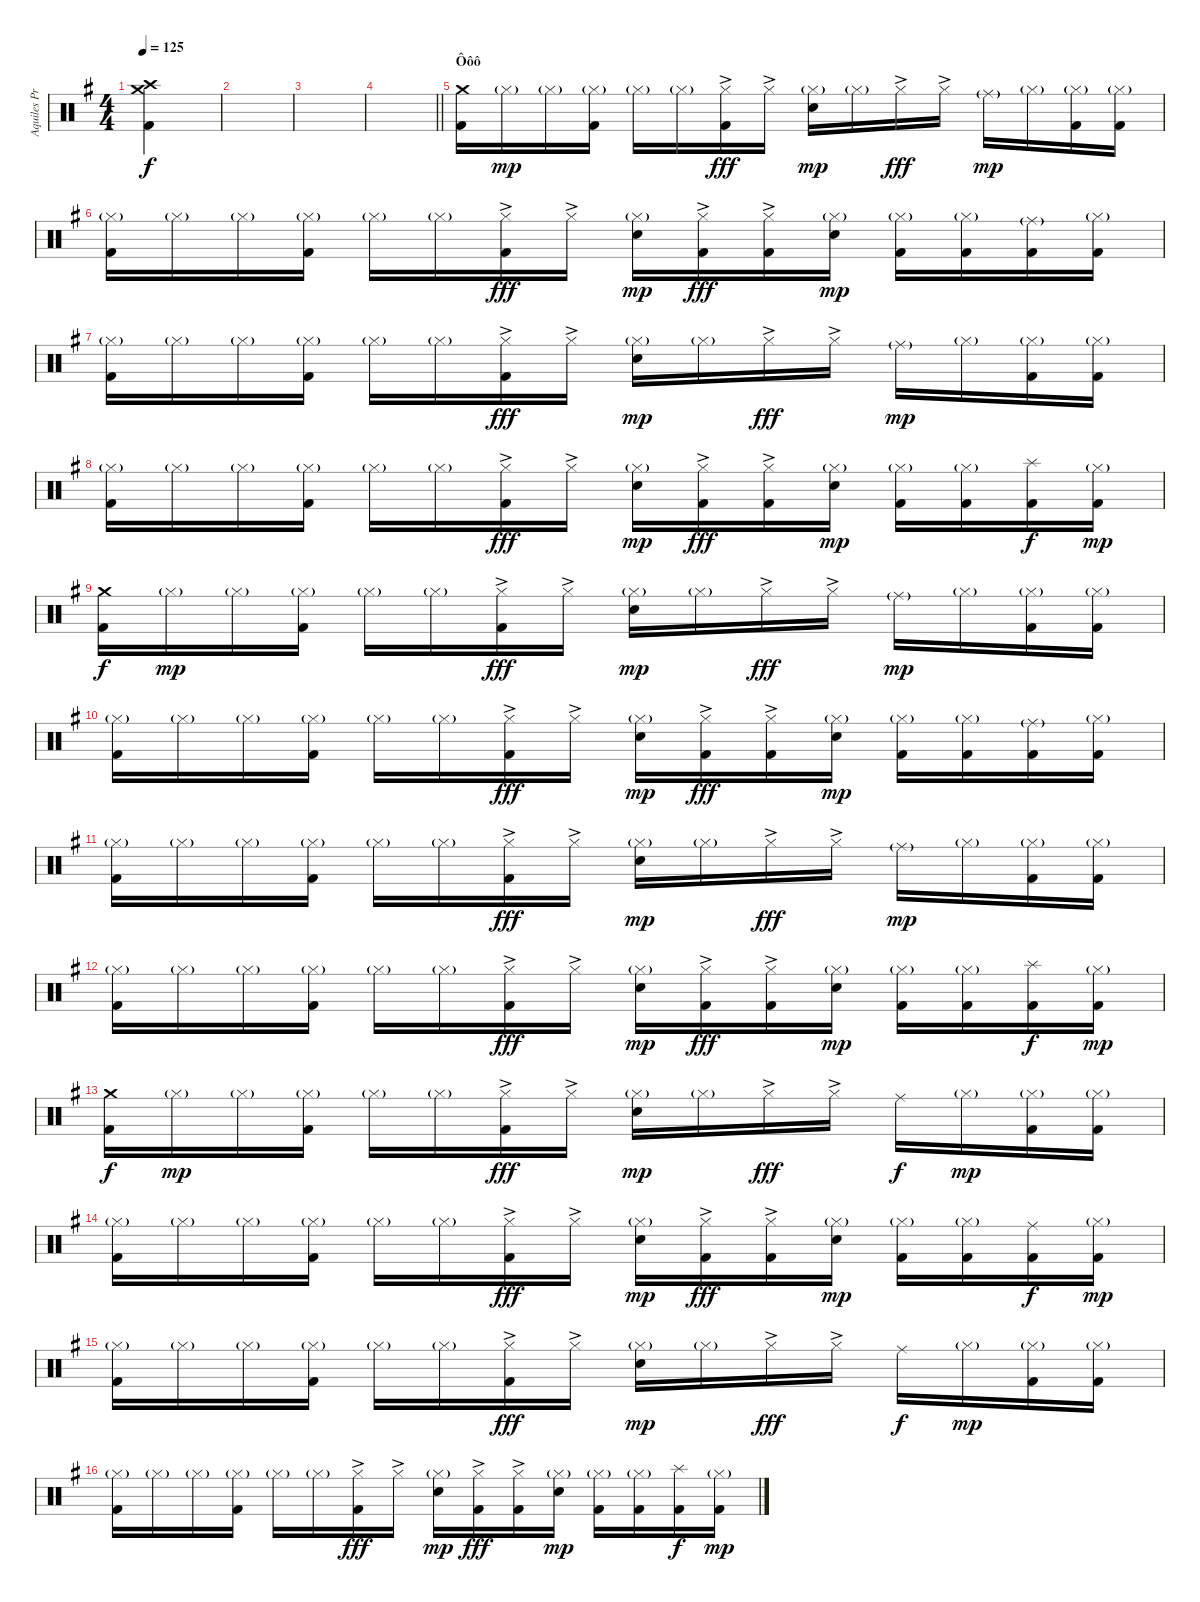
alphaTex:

\track ("Aquiles Priester" "Aquiles Pr") {instrument percussion}
\staff {score}
\articulation defaults
\ts (4 4)
\tempo 125
\clef neutral
\ks eminor
("Crash high (hit)" "Crash medium (hit)" "Kick (hit) 2").4{dy f} |
|
|
\barLineRight lightlight
|
\section ("" "Ôôô")
("Crash medium (hit)" "Kick (hit) 2").16 "Hi-Hat (closed)"{g}.16{dy mp} "Hi-Hat (closed)"{g}.16 ("Hi-Hat (closed)"{g} "Kick (hit) 2").16 "Hi-Hat (closed)"{g}.16 "Hi-Hat (closed)"{g}.16 ("Hi-Hat (closed)"{ac} "Kick (hit) 2").16{dy fff} "Hi-Hat (closed)"{ac}.16 ("Hi-Hat (closed)"{g} "Electric Snare (hit)").16{dy mp} "Hi-Hat (closed)"{g}.16 "Hi-Hat (closed)"{ac}.16{dy fff} "Hi-Hat (closed)"{ac}.16 "Ride (middle)"{g}.16{dy mp} "Hi-Hat (closed)"{g}.16 ("Hi-Hat (closed)"{g} "Kick (hit) 2").16 ("Hi-Hat (closed)"{g} "Kick (hit) 2").16 |
("Hi-Hat (closed)"{g} "Kick (hit) 2").16 "Hi-Hat (closed)"{g}.16 "Hi-Hat (closed)"{g}.16 ("Hi-Hat (closed)"{g} "Kick (hit) 2").16 "Hi-Hat (closed)"{g}.16 "Hi-Hat (closed)"{g}.16 ("Hi-Hat (closed)"{ac} "Kick (hit) 2").16{dy fff} "Hi-Hat (closed)"{ac}.16 ("Hi-Hat (closed)"{g} "Electric Snare (hit)").16{dy mp} ("Hi-Hat (closed)"{ac} "Kick (hit) 2").16{dy fff} ("Hi-Hat (closed)"{ac} "Kick (hit) 2").16 ("Hi-Hat (closed)"{g} "Electric Snare (hit)").16{dy mp} ("Hi-Hat (closed)"{g} "Kick (hit) 2").16 ("Hi-Hat (closed)"{g} "Kick (hit) 2").16 ("Ride (middle)"{g} "Kick (hit) 2").16 ("Hi-Hat (closed)"{g} "Kick (hit) 2").16 |
("Hi-Hat (closed)"{g} "Kick (hit) 2").16 "Hi-Hat (closed)"{g}.16 "Hi-Hat (closed)"{g}.16 ("Hi-Hat (closed)"{g} "Kick (hit) 2").16 "Hi-Hat (closed)"{g}.16 "Hi-Hat (closed)"{g}.16 ("Hi-Hat (closed)"{ac} "Kick (hit) 2").16{dy fff} "Hi-Hat (closed)"{ac}.16 ("Hi-Hat (closed)"{g} "Electric Snare (hit)").16{dy mp} "Hi-Hat (closed)"{g}.16 "Hi-Hat (closed)"{ac}.16{dy fff} "Hi-Hat (closed)"{ac}.16 "Ride (middle)"{g}.16{dy mp} "Hi-Hat (closed)"{g}.16 ("Hi-Hat (closed)"{g} "Kick (hit) 2").16 ("Hi-Hat (closed)"{g} "Kick (hit) 2").16 |
("Hi-Hat (closed)"{g} "Kick (hit) 2").16 "Hi-Hat (closed)"{g}.16 "Hi-Hat (closed)"{g}.16 ("Hi-Hat (closed)"{g} "Kick (hit) 2").16 "Hi-Hat (closed)"{g}.16 "Hi-Hat (closed)"{g}.16 ("Hi-Hat (closed)"{ac} "Kick (hit) 2").16{dy fff} "Hi-Hat (closed)"{ac}.16 ("Hi-Hat (closed)"{g} "Electric Snare (hit)").16{dy mp} ("Hi-Hat (closed)"{ac} "Kick (hit) 2").16{dy fff} ("Hi-Hat (closed)"{ac} "Kick (hit) 2").16 ("Hi-Hat (closed)"{g} "Electric Snare (hit)").16{dy mp} ("Hi-Hat (closed)"{g} "Kick (hit) 2").16 ("Hi-Hat (closed)"{g} "Kick (hit) 2").16 ("Splash (hit)" "Kick (hit) 2").16{dy f} ("Hi-Hat (closed)"{g} "Kick (hit) 2").16{dy mp} |
("Crash medium (hit)" "Kick (hit) 2").16{dy f} "Hi-Hat (closed)"{g}.16{dy mp} "Hi-Hat (closed)"{g}.16 ("Hi-Hat (closed)"{g} "Kick (hit) 2").16 "Hi-Hat (closed)"{g}.16 "Hi-Hat (closed)"{g}.16 ("Hi-Hat (closed)"{ac} "Kick (hit) 2").16{dy fff} "Hi-Hat (closed)"{ac}.16 ("Hi-Hat (closed)"{g} "Electric Snare (hit)").16{dy mp} "Hi-Hat (closed)"{g}.16 "Hi-Hat (closed)"{ac}.16{dy fff} "Hi-Hat (closed)"{ac}.16 "Ride (middle)"{g}.16{dy mp} "Hi-Hat (closed)"{g}.16 ("Hi-Hat (closed)"{g} "Kick (hit) 2").16 ("Hi-Hat (closed)"{g} "Kick (hit) 2").16 |
("Hi-Hat (closed)"{g} "Kick (hit) 2").16 "Hi-Hat (closed)"{g}.16 "Hi-Hat (closed)"{g}.16 ("Hi-Hat (closed)"{g} "Kick (hit) 2").16 "Hi-Hat (closed)"{g}.16 "Hi-Hat (closed)"{g}.16 ("Hi-Hat (closed)"{ac} "Kick (hit) 2").16{dy fff} "Hi-Hat (closed)"{ac}.16 ("Hi-Hat (closed)"{g} "Electric Snare (hit)").16{dy mp} ("Hi-Hat (closed)"{ac} "Kick (hit) 2").16{dy fff} ("Hi-Hat (closed)"{ac} "Kick (hit) 2").16 ("Hi-Hat (closed)"{g} "Electric Snare (hit)").16{dy mp} ("Hi-Hat (closed)"{g} "Kick (hit) 2").16 ("Hi-Hat (closed)"{g} "Kick (hit) 2").16 ("Ride (middle)"{g} "Kick (hit) 2").16 ("Hi-Hat (closed)"{g} "Kick (hit) 2").16 |
("Hi-Hat (closed)"{g} "Kick (hit) 2").16 "Hi-Hat (closed)"{g}.16 "Hi-Hat (closed)"{g}.16 ("Hi-Hat (closed)"{g} "Kick (hit) 2").16 "Hi-Hat (closed)"{g}.16 "Hi-Hat (closed)"{g}.16 ("Hi-Hat (closed)"{ac} "Kick (hit) 2").16{dy fff} "Hi-Hat (closed)"{ac}.16 ("Hi-Hat (closed)"{g} "Electric Snare (hit)").16{dy mp} "Hi-Hat (closed)"{g}.16 "Hi-Hat (closed)"{ac}.16{dy fff} "Hi-Hat (closed)"{ac}.16 "Ride (middle)"{g}.16{dy mp} "Hi-Hat (closed)"{g}.16 ("Hi-Hat (closed)"{g} "Kick (hit) 2").16 ("Hi-Hat (closed)"{g} "Kick (hit) 2").16 |
("Hi-Hat (closed)"{g} "Kick (hit) 2").16 "Hi-Hat (closed)"{g}.16 "Hi-Hat (closed)"{g}.16 ("Hi-Hat (closed)"{g} "Kick (hit) 2").16 "Hi-Hat (closed)"{g}.16 "Hi-Hat (closed)"{g}.16 ("Hi-Hat (closed)"{ac} "Kick (hit) 2").16{dy fff} "Hi-Hat (closed)"{ac}.16 ("Hi-Hat (closed)"{g} "Electric Snare (hit)").16{dy mp} ("Hi-Hat (closed)"{ac} "Kick (hit) 2").16{dy fff} ("Hi-Hat (closed)"{ac} "Kick (hit) 2").16 ("Hi-Hat (closed)"{g} "Electric Snare (hit)").16{dy mp} ("Hi-Hat (closed)"{g} "Kick (hit) 2").16 ("Hi-Hat (closed)"{g} "Kick (hit) 2").16 ("Splash (hit)" "Kick (hit) 2").16{dy f} ("Hi-Hat (closed)"{g} "Kick (hit) 2").16{dy mp} |
("Crash medium (hit)" "Kick (hit) 2").16{dy f} "Hi-Hat (closed)"{g}.16{dy mp} "Hi-Hat (closed)"{g}.16 ("Hi-Hat (closed)"{g} "Kick (hit) 2").16 "Hi-Hat (closed)"{g}.16 "Hi-Hat (closed)"{g}.16 ("Hi-Hat (closed)"{ac} "Kick (hit) 2").16{dy fff} "Hi-Hat (closed)"{ac}.16 ("Hi-Hat (closed)"{g} "Electric Snare (hit)").16{dy mp} "Hi-Hat (closed)"{g}.16 "Hi-Hat (closed)"{ac}.16{dy fff} "Hi-Hat (closed)"{ac}.16 "Ride (middle)".16{dy f} "Hi-Hat (closed)"{g}.16{dy mp} ("Hi-Hat (closed)"{g} "Kick (hit) 2").16 ("Hi-Hat (closed)"{g} "Kick (hit) 2").16 |
("Hi-Hat (closed)"{g} "Kick (hit) 2").16 "Hi-Hat (closed)"{g}.16 "Hi-Hat (closed)"{g}.16 ("Hi-Hat (closed)"{g} "Kick (hit) 2").16 "Hi-Hat (closed)"{g}.16 "Hi-Hat (closed)"{g}.16 ("Hi-Hat (closed)"{ac} "Kick (hit) 2").16{dy fff} "Hi-Hat (closed)"{ac}.16 ("Hi-Hat (closed)"{g} "Electric Snare (hit)").16{dy mp} ("Hi-Hat (closed)"{ac} "Kick (hit) 2").16{dy fff} ("Hi-Hat (closed)"{ac} "Kick (hit) 2").16 ("Hi-Hat (closed)"{g} "Electric Snare (hit)").16{dy mp} ("Hi-Hat (closed)"{g} "Kick (hit) 2").16 ("Hi-Hat (closed)"{g} "Kick (hit) 2").16 ("Ride (middle)" "Kick (hit) 2").16{dy f} ("Hi-Hat (closed)"{g} "Kick (hit) 2").16{dy mp} |
("Hi-Hat (closed)"{g} "Kick (hit) 2").16 "Hi-Hat (closed)"{g}.16 "Hi-Hat (closed)"{g}.16 ("Hi-Hat (closed)"{g} "Kick (hit) 2").16 "Hi-Hat (closed)"{g}.16 "Hi-Hat (closed)"{g}.16 ("Hi-Hat (closed)"{ac} "Kick (hit) 2").16{dy fff} "Hi-Hat (closed)"{ac}.16 ("Hi-Hat (closed)"{g} "Electric Snare (hit)").16{dy mp} "Hi-Hat (closed)"{g}.16 "Hi-Hat (closed)"{ac}.16{dy fff} "Hi-Hat (closed)"{ac}.16 "Ride (middle)".16{dy f} "Hi-Hat (closed)"{g}.16{dy mp} ("Hi-Hat (closed)"{g} "Kick (hit) 2").16 ("Hi-Hat (closed)"{g} "Kick (hit) 2").16 |
("Hi-Hat (closed)"{g} "Kick (hit) 2").16 "Hi-Hat (closed)"{g}.16 "Hi-Hat (closed)"{g}.16 ("Hi-Hat (closed)"{g} "Kick (hit) 2").16 "Hi-Hat (closed)"{g}.16 "Hi-Hat (closed)"{g}.16 ("Hi-Hat (closed)"{ac} "Kick (hit) 2").16{dy fff} "Hi-Hat (closed)"{ac}.16 ("Hi-Hat (closed)"{g} "Electric Snare (hit)").16{dy mp} ("Hi-Hat (closed)"{ac} "Kick (hit) 2").16{dy fff} ("Hi-Hat (closed)"{ac} "Kick (hit) 2").16 ("Hi-Hat (closed)"{g} "Electric Snare (hit)").16{dy mp} ("Hi-Hat (closed)"{g} "Kick (hit) 2").16 ("Hi-Hat (closed)"{g} "Kick (hit) 2").16 ("Splash (hit)" "Kick (hit) 2").16{dy f} ("Hi-Hat (closed)"{g} "Kick (hit) 2").16{dy mp}
